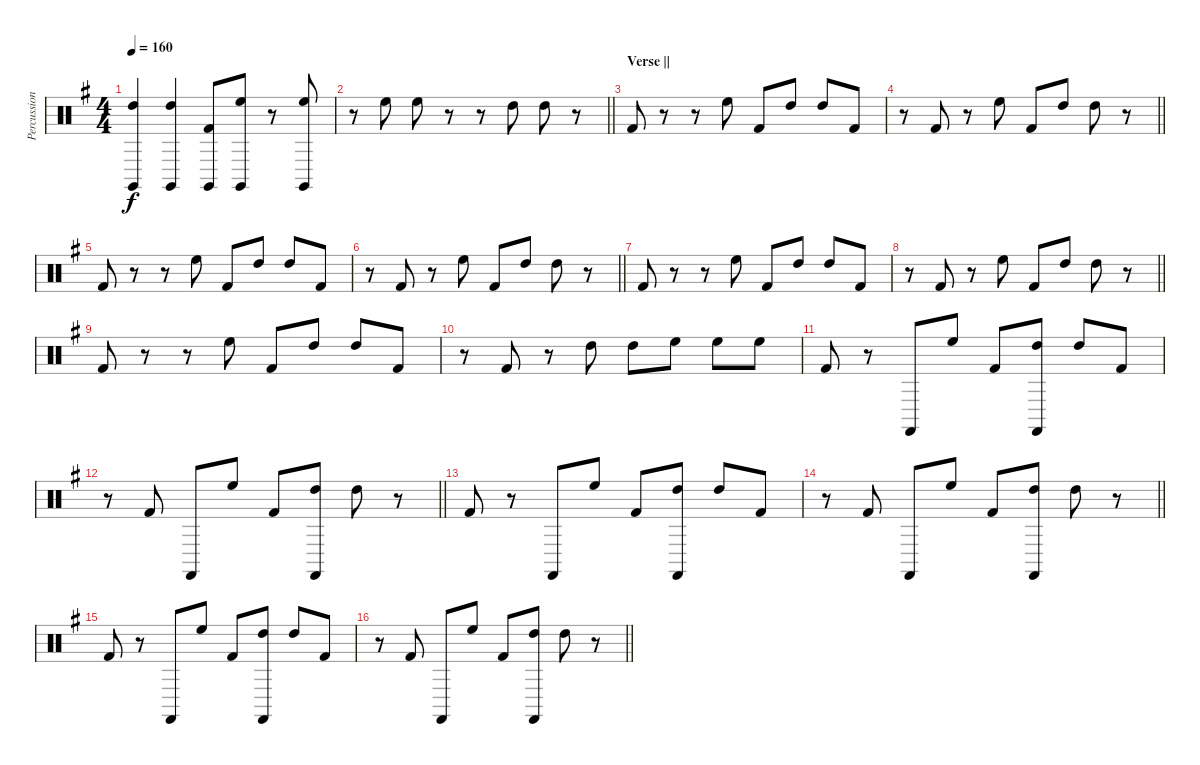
\track ("Percussion" "Percussion") {instrument percussion}
\staff {score}
\articulation defaults
\ts (4 4)
\tempo 160
\clef neutral
\ks g
("Claves (hit)" "High Tom (hit)").4{dy f} ("Claves (hit)" "High Tom (hit)").4 ("Claves (hit)" "Kick (hit) 2").8 ("Claves (hit)" "High Floor Tom (hit)").8 r.8 ("Claves (hit)" "High Floor Tom (hit)").8 |
\barLineRight lightlight
r.8 "High Floor Tom (hit)".8 "High Floor Tom (hit)".8 r.8 r.8 "High Tom (hit)".8 "High Tom (hit)".8 r.8 |
\section ("" "Verse ||")
"Kick (hit) 2".8 r.8 r.8 "High Floor Tom (hit)".8 "Kick (hit) 2".8 "High Tom (hit)".8 "High Tom (hit)".8 "Kick (hit) 2".8 |
\barLineRight lightlight
r.8 "Kick (hit) 2".8 r.8 "High Floor Tom (hit)".8 "Kick (hit) 2".8 "High Tom (hit)".8 "High Tom (hit)".8 r.8 |
"Kick (hit) 2".8 r.8 r.8 "High Floor Tom (hit)".8 "Kick (hit) 2".8 "High Tom (hit)".8 "High Tom (hit)".8 "Kick (hit) 2".8 |
\barLineRight lightlight
r.8 "Kick (hit) 2".8 r.8 "High Floor Tom (hit)".8 "Kick (hit) 2".8 "High Tom (hit)".8 "High Tom (hit)".8 r.8 |
"Kick (hit) 2".8 r.8 r.8 "High Floor Tom (hit)".8 "Kick (hit) 2".8 "High Tom (hit)".8 "High Tom (hit)".8 "Kick (hit) 2".8 |
\barLineRight lightlight
r.8 "Kick (hit) 2".8 r.8 "High Floor Tom (hit)".8 "Kick (hit) 2".8 "High Tom (hit)".8 "High Tom (hit)".8 r.8 |
"Kick (hit) 2".8 r.8 r.8 "High Floor Tom (hit)".8 "Kick (hit) 2".8 "High Tom (hit)".8 "High Tom (hit)".8 "Kick (hit) 2".8 |
r.8 "Kick (hit) 2".8 r.8 "High Tom (hit)".8 "High Tom (hit)".8 "High Floor Tom (hit)".8 "High Floor Tom (hit)".8 "High Floor Tom (hit)".8 |
"Kick (hit) 2".8 r.8 "Castanets (hit)".8 "High Floor Tom (hit)".8 "Kick (hit) 2".8 ("High Tom (hit)" "Castanets (hit)").8 "High Tom (hit)".8 "Kick (hit) 2".8 |
\barLineRight lightlight
r.8 "Kick (hit) 2".8 "Castanets (hit)".8 "High Floor Tom (hit)".8 "Kick (hit) 2".8 ("High Tom (hit)" "Castanets (hit)").8 "High Tom (hit)".8 r.8 |
"Kick (hit) 2".8 r.8 "Castanets (hit)".8 "High Floor Tom (hit)".8 "Kick (hit) 2".8 ("High Tom (hit)" "Castanets (hit)").8 "High Tom (hit)".8 "Kick (hit) 2".8 |
\barLineRight lightlight
r.8 "Kick (hit) 2".8 "Castanets (hit)".8 "High Floor Tom (hit)".8 "Kick (hit) 2".8 ("High Tom (hit)" "Castanets (hit)").8 "High Tom (hit)".8 r.8 |
"Kick (hit) 2".8 r.8 "Castanets (hit)".8 "High Floor Tom (hit)".8 "Kick (hit) 2".8 ("High Tom (hit)" "Castanets (hit)").8 "High Tom (hit)".8 "Kick (hit) 2".8 |
\barLineRight lightlight
r.8 "Kick (hit) 2".8 "Castanets (hit)".8 "High Floor Tom (hit)".8 "Kick (hit) 2".8 ("High Tom (hit)" "Castanets (hit)").8 "High Tom (hit)".8 r.8
